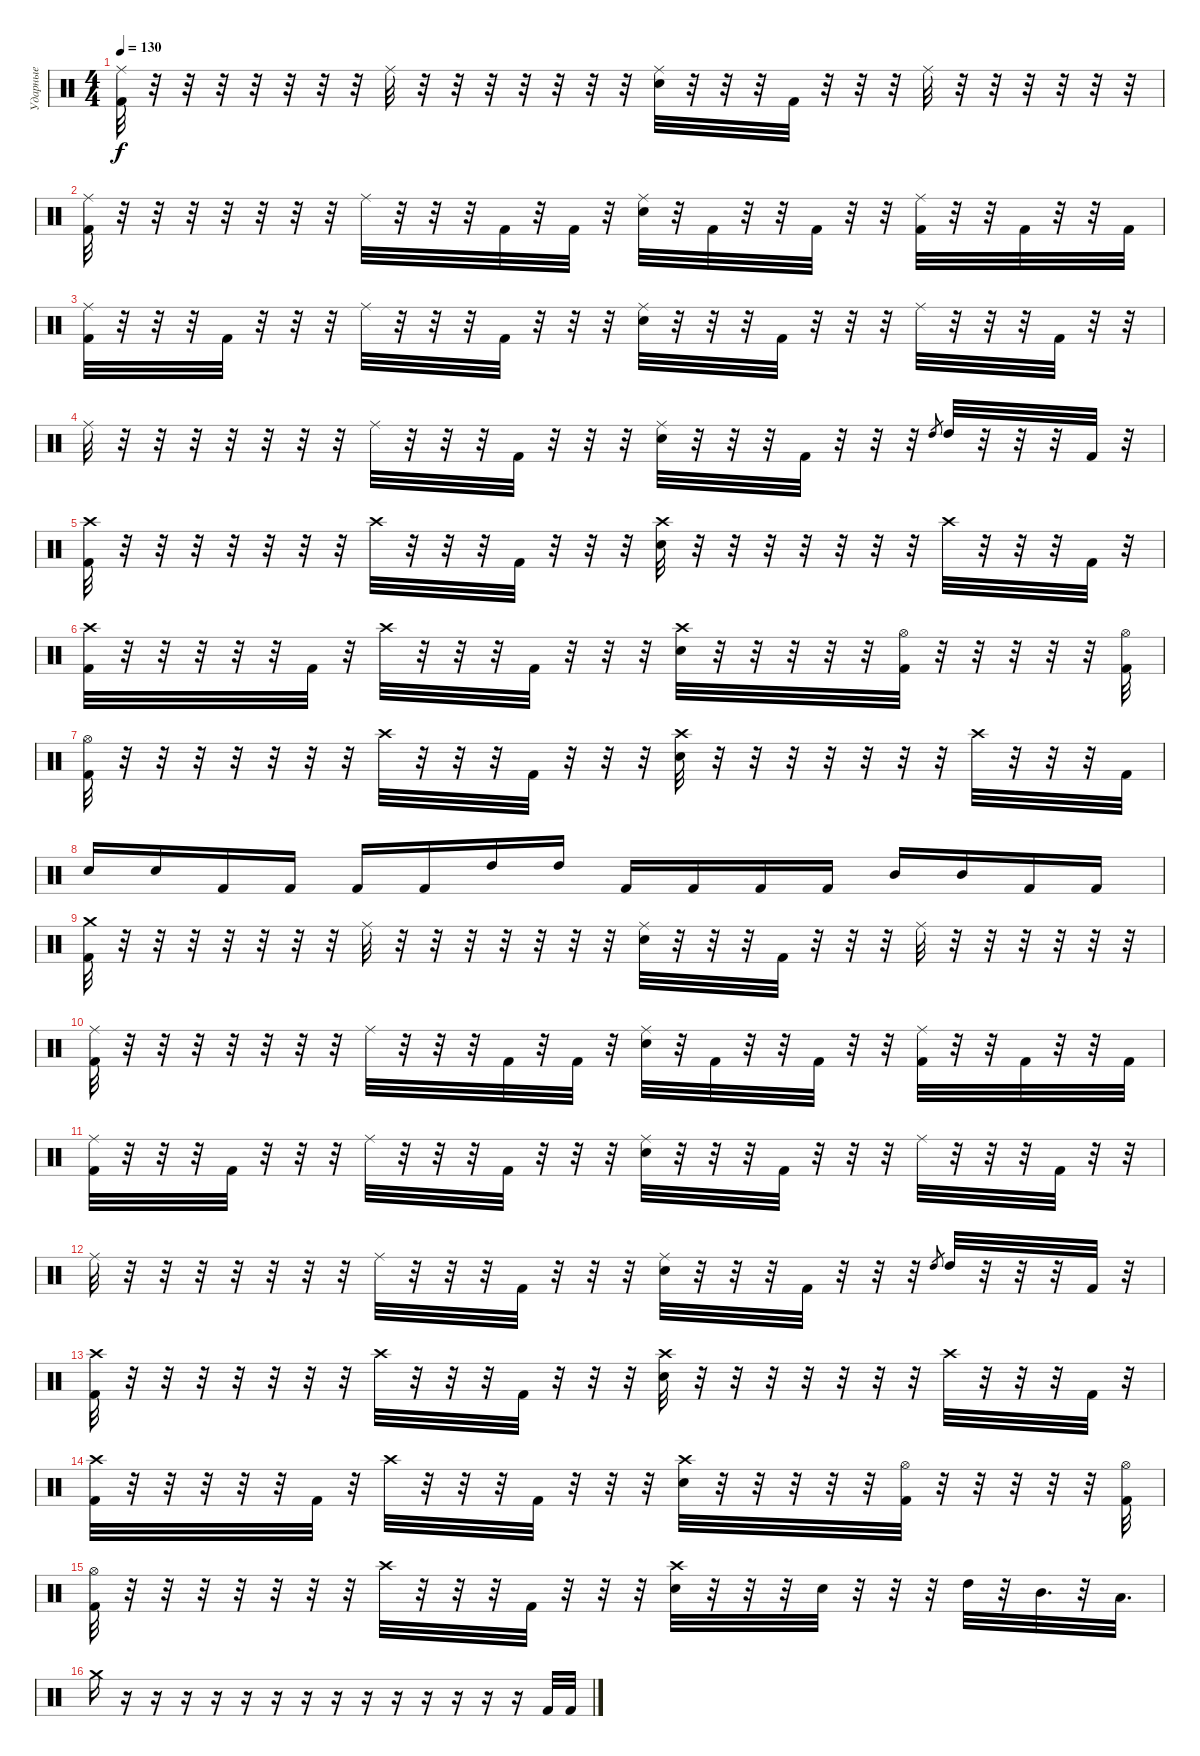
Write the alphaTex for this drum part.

\track ("Ударные" "Ударные") {instrument percussion}
\staff {score}
\articulation defaults
\ts (4 4)
\tempo 130
\clef neutral
\ks c
("Ride (middle)" "Kick (hit) 2").32{dy f} r.32 r.32 r.32 r.32 r.32 r.32 r.32 "Ride (middle)".32 r.32 r.32 r.32 r.32 r.32 r.32 r.32 ("Ride (middle)" "Electric Snare (hit)").32 r.32 r.32 r.32 "Kick (hit) 2".32 r.32 r.32 r.32 "Ride (middle)".32 r.32 r.32 r.32 r.32 r.32 r.32 |
("Ride (middle)" "Kick (hit) 2").32 r.32 r.32 r.32 r.32 r.32 r.32 r.32 "Ride (middle)".32 r.32 r.32 r.32 "Kick (hit) 2".32 r.32 "Kick (hit) 2".32 r.32 ("Ride (middle)" "Electric Snare (hit)").32 r.32 "Kick (hit) 2".32 r.32 r.32 "Kick (hit) 2".32 r.32 r.32 ("Ride (middle)" "Kick (hit) 2").32 r.32 r.32 "Kick (hit) 2".32 r.32 r.32 "Kick (hit) 2".32 |
("Ride (middle)" "Kick (hit) 2").32 r.32 r.32 r.32 "Kick (hit) 2".32 r.32 r.32 r.32 "Ride (middle)".32 r.32 r.32 r.32 "Kick (hit) 2".32 r.32 r.32 r.32 ("Ride (middle)" "Electric Snare (hit)").32 r.32 r.32 r.32 "Kick (hit) 2".32 r.32 r.32 r.32 "Ride (middle)".32 r.32 r.32 r.32 "Kick (hit) 2".32 r.32 r.32 |
"Ride (middle)".32 r.32 r.32 r.32 r.32 r.32 r.32 r.32 "Ride (middle)".32 r.32 r.32 r.32 "Kick (hit) 2".32 r.32 r.32 r.32 ("Ride (middle)" "Electric Snare (hit)").32 r.32 r.32 r.32 "Kick (hit) 2".32 r.32 r.32 r.32 "High Tom (hit)".8{gr} "High Tom (hit)".32 r.32 r.32 r.32 "Kick (hit) 2".32 r.32 |
("Crash high (hit)" "Kick (hit) 2").32 r.32 r.32 r.32 r.32 r.32 r.32 r.32 "Crash high (hit)".32 r.32 r.32 r.32 "Kick (hit) 2".32 r.32 r.32 r.32 ("Crash high (hit)" "Electric Snare (hit)").32 r.32 r.32 r.32 r.32 r.32 r.32 r.32 "Crash high (hit)".32 r.32 r.32 r.32 "Kick (hit) 2".32 r.32 |
("Crash high (hit)" "Kick (hit) 2").32 r.32 r.32 r.32 r.32 r.32 "Kick (hit) 2".32 r.32 "Crash high (hit)".32 r.32 r.32 r.32 "Kick (hit) 2".32 r.32 r.32 r.32 ("Crash high (hit)" "Electric Snare (hit)").32 r.32 r.32 r.32 r.32 r.32 ("Hi-Hat (open)" "Kick (hit) 2").32 r.32 r.32 r.32 r.32 r.32 ("Hi-Hat (open)" "Kick (hit) 2").32 |
("Hi-Hat (open)" "Kick (hit) 2").32 r.32 r.32 r.32 r.32 r.32 r.32 r.32 "Crash high (hit)".32 r.32 r.32 r.32 "Kick (hit) 2".32 r.32 r.32 r.32 ("Crash high (hit)" "Electric Snare (hit)").32 r.32 r.32 r.32 r.32 r.32 r.32 r.32 "Crash high (hit)".32 r.32 r.32 r.32 "Kick (hit) 2".32 |
"Electric Snare (hit)".16 "Electric Snare (hit)".16 "Kick (hit) 2".16 "Kick (hit) 2".16 "Kick (hit) 2".16 "Kick (hit) 2".16 "High Tom (hit)".16 "High Tom (hit)".16 "Kick (hit) 2".16 "Kick (hit) 2".16 "Kick (hit) 2".16 "Kick (hit) 2".16 "Mid Tom (hit)".16 "Mid Tom (hit)".16 "Kick (hit) 2".16 "Kick (hit) 2".16 |
("Crash medium (hit)" "Kick (hit) 2").32 r.32 r.32 r.32 r.32 r.32 r.32 r.32 "Ride (middle)".32 r.32 r.32 r.32 r.32 r.32 r.32 r.32 ("Ride (middle)" "Electric Snare (hit)").32 r.32 r.32 r.32 "Kick (hit) 2".32 r.32 r.32 r.32 "Ride (middle)".32 r.32 r.32 r.32 r.32 r.32 r.32 |
("Ride (middle)" "Kick (hit) 2").32 r.32 r.32 r.32 r.32 r.32 r.32 r.32 "Ride (middle)".32 r.32 r.32 r.32 "Kick (hit) 2".32 r.32 "Kick (hit) 2".32 r.32 ("Ride (middle)" "Electric Snare (hit)").32 r.32 "Kick (hit) 2".32 r.32 r.32 "Kick (hit) 2".32 r.32 r.32 ("Ride (middle)" "Kick (hit) 2").32 r.32 r.32 "Kick (hit) 2".32 r.32 r.32 "Kick (hit) 2".32 |
("Ride (middle)" "Kick (hit) 2").32 r.32 r.32 r.32 "Kick (hit) 2".32 r.32 r.32 r.32 "Ride (middle)".32 r.32 r.32 r.32 "Kick (hit) 2".32 r.32 r.32 r.32 ("Ride (middle)" "Electric Snare (hit)").32 r.32 r.32 r.32 "Kick (hit) 2".32 r.32 r.32 r.32 "Ride (middle)".32 r.32 r.32 r.32 "Kick (hit) 2".32 r.32 r.32 |
"Ride (middle)".32 r.32 r.32 r.32 r.32 r.32 r.32 r.32 "Ride (middle)".32 r.32 r.32 r.32 "Kick (hit) 2".32 r.32 r.32 r.32 ("Ride (middle)" "Electric Snare (hit)").32 r.32 r.32 r.32 "Kick (hit) 2".32 r.32 r.32 r.32 "High Tom (hit)".8{gr} "High Tom (hit)".32 r.32 r.32 r.32 "Kick (hit) 2".32 r.32 |
("Crash high (hit)" "Kick (hit) 2").32 r.32 r.32 r.32 r.32 r.32 r.32 r.32 "Crash high (hit)".32 r.32 r.32 r.32 "Kick (hit) 2".32 r.32 r.32 r.32 ("Crash high (hit)" "Electric Snare (hit)").32 r.32 r.32 r.32 r.32 r.32 r.32 r.32 "Crash high (hit)".32 r.32 r.32 r.32 "Kick (hit) 2".32 r.32 |
("Crash high (hit)" "Kick (hit) 2").32 r.32 r.32 r.32 r.32 r.32 "Kick (hit) 2".32 r.32 "Crash high (hit)".32 r.32 r.32 r.32 "Kick (hit) 2".32 r.32 r.32 r.32 ("Crash high (hit)" "Electric Snare (hit)").32 r.32 r.32 r.32 r.32 r.32 ("Hi-Hat (open)" "Kick (hit) 2").32 r.32 r.32 r.32 r.32 r.32 ("Hi-Hat (open)" "Kick (hit) 2").32 |
("Hi-Hat (open)" "Kick (hit) 2").32 r.32 r.32 r.32 r.32 r.32 r.32 r.32 "Crash high (hit)".32 r.32 r.32 r.32 "Kick (hit) 2".32 r.32 r.32 r.32 ("Crash high (hit)" "Electric Snare (hit)").32 r.32 r.32 r.32 "Electric Snare (hit)".32 r.32 r.32 r.32 "High Tom (hit)".32 r.32 "Mid Tom (hit)".32{d} r.32 "Low Tom (hit)".32{d} |
"Crash medium (hit)".16 r.16 r.16 r.16 r.16 r.16 r.16 r.16 r.16 r.16 r.16 r.16 r.16 r.16 r.16 "Kick (hit) 2".32 "Kick (hit) 2".32
